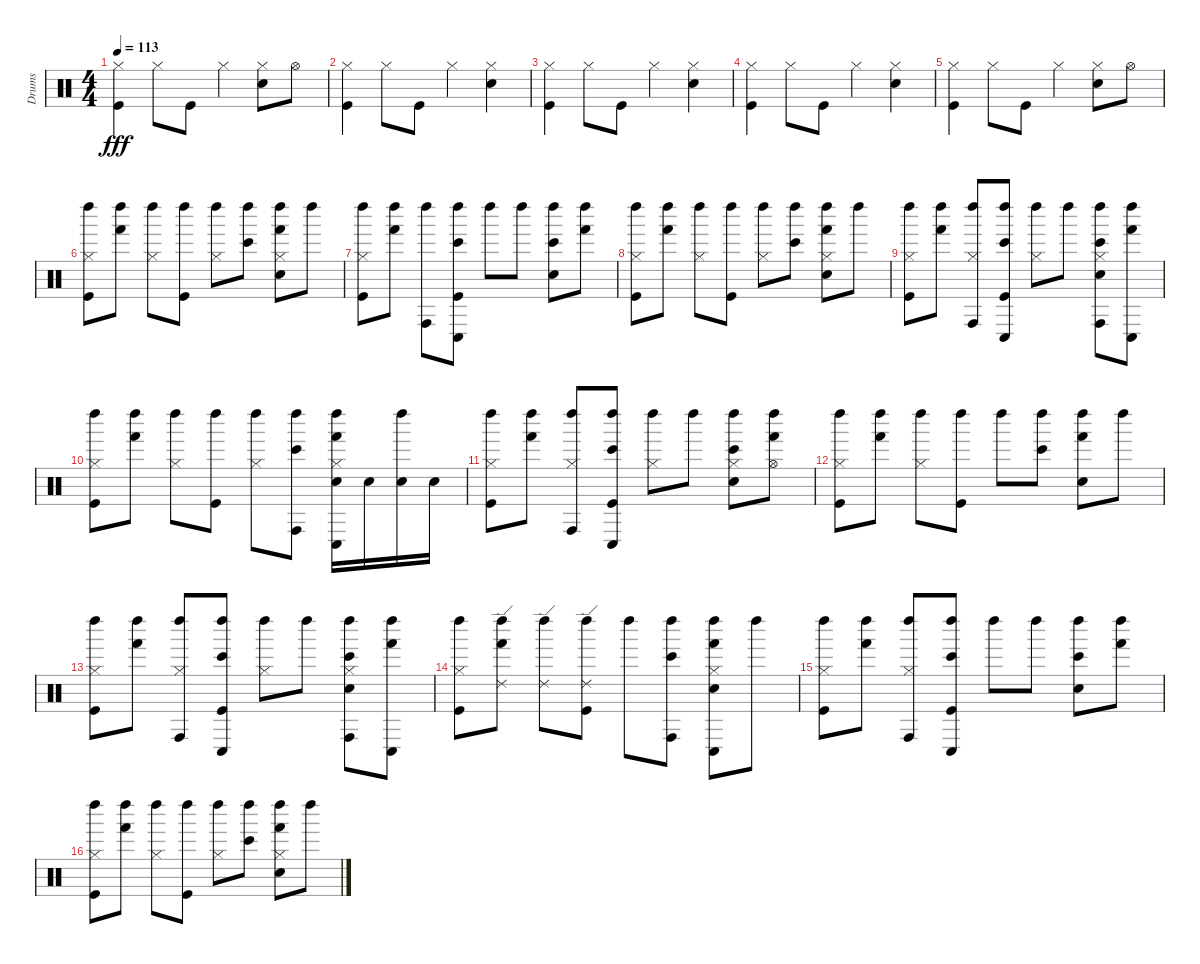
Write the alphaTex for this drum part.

\track ("Drums" "Drums") {instrument percussion}
\staff {score}
\articulation defaults
\ts (4 4)
\tempo 113
\clef neutral
\ks c
("Hi-Hat (closed)" "Kick (hit)").4{dy fff} "Hi-Hat (closed)".8 "Kick (hit)".8 "Hi-Hat (closed)".4 ("Hi-Hat (closed)" "Snare (hit) 2").8 "Hi-Hat (open)".8 |
("Hi-Hat (closed)" "Kick (hit)").4 "Hi-Hat (closed)".8 "Kick (hit)".8 "Hi-Hat (closed)".4 ("Hi-Hat (closed)" "Snare (hit) 2").4 |
("Hi-Hat (closed)" "Kick (hit)").4 "Hi-Hat (closed)".8 "Kick (hit)".8 "Hi-Hat (closed)".4 ("Hi-Hat (closed)" "Snare (hit) 2").4 |
("Hi-Hat (closed)" "Kick (hit)").4 "Hi-Hat (closed)".8 "Kick (hit)".8 "Hi-Hat (closed)".4 ("Hi-Hat (closed)" "Snare (hit) 2").4 |
("Hi-Hat (closed)" "Kick (hit)").4 "Hi-Hat (closed)".8 "Kick (hit)".8 "Hi-Hat (closed)".4 ("Hi-Hat (closed)" "Snare (hit) 2").8 "Hi-Hat (open)".8 |
("Hi-Hat (closed)" "Left Maraca (hit)" "Kick (hit)").8 ("Left Maraca (hit)" "Hand (hit)").8 ("Hi-Hat (closed)" "Left Maraca (hit)").8 ("Left Maraca (hit)" "Kick (hit)").8 ("Hi-Hat (closed)" "Left Maraca (hit)").8 ("Left Maraca (hit)" "Bongo High (hit)").8 ("Hi-Hat (closed)" "Left Maraca (hit)" "Hand (hit)" "Snare (hit) 2").8 "Left Maraca (hit)".8 |
("Hi-Hat (closed)" "Left Maraca (hit)" "Kick (hit)").8 ("Left Maraca (hit)" "Hand (hit)").8 ("Left Maraca (hit)" "Conga high (hit)").8 ("Left Maraca (hit)" "Conga low (hit)" "Bongo High (hit)" "Kick (hit)").8 "Left Maraca (hit)".8 "Left Maraca (hit)".8 ("Left Maraca (hit)" "Bongo High (hit)" "Snare (hit) 2").8 ("Left Maraca (hit)" "Hand (hit)").8 |
("Hi-Hat (closed)" "Left Maraca (hit)" "Kick (hit)").8 ("Left Maraca (hit)" "Hand (hit)").8 ("Hi-Hat (closed)" "Left Maraca (hit)").8 ("Left Maraca (hit)" "Kick (hit)").8 ("Hi-Hat (closed)" "Left Maraca (hit)").8 ("Left Maraca (hit)" "Bongo High (hit)").8 ("Hi-Hat (closed)" "Left Maraca (hit)" "Hand (hit)" "Snare (hit) 2").8 "Left Maraca (hit)".8 |
("Hi-Hat (closed)" "Left Maraca (hit)" "Kick (hit)").8 ("Left Maraca (hit)" "Hand (hit)").8 ("Hi-Hat (closed)" "Left Maraca (hit)" "Conga high (hit)").8 ("Left Maraca (hit)" "Conga low (hit)" "Bongo High (hit)" "Kick (hit)").8 ("Hi-Hat (closed)" "Left Maraca (hit)").8 "Left Maraca (hit)".8 ("Hi-Hat (closed)" "Left Maraca (hit)" "Conga high (hit)" "Bongo High (hit)" "Snare (hit) 2").8 ("Left Maraca (hit)" "Conga low (hit)" "Hand (hit)").8 |
("Hi-Hat (closed)" "Left Maraca (hit)" "Kick (hit)").8 ("Left Maraca (hit)" "Hand (hit)").8 ("Hi-Hat (closed)" "Left Maraca (hit)").8 ("Left Maraca (hit)" "Kick (hit)").8 ("Hi-Hat (closed)" "Left Maraca (hit)").8 ("Left Maraca (hit)" "Conga high (hit)" "Bongo High (hit)").8 ("Hi-Hat (closed)" "Left Maraca (hit)" "Conga low (hit)" "Hand (hit)" "Snare (hit) 2").16 "Snare (hit) 2".16 ("Left Maraca (hit)" "Snare (hit) 2").16 "Snare (hit) 2".16 |
("Hi-Hat (closed)" "Left Maraca (hit)" "Kick (hit)").8 ("Left Maraca (hit)" "Hand (hit)").8 ("Hi-Hat (closed)" "Left Maraca (hit)" "Conga high (hit)").8 ("Left Maraca (hit)" "Conga low (hit)" "Bongo High (hit)" "Kick (hit)").8 ("Hi-Hat (closed)" "Left Maraca (hit)").8 "Left Maraca (hit)".8 ("Hi-Hat (closed)" "Left Maraca (hit)" "Bongo High (hit)" "Snare (hit) 2").8 ("Hi-Hat (open)" "Left Maraca (hit)" "Hand (hit)").8 |
("Hi-Hat (closed)" "Left Maraca (hit)" "Kick (hit)").8 ("Left Maraca (hit)" "Hand (hit)").8 ("Hi-Hat (closed)" "Left Maraca (hit)").8 ("Left Maraca (hit)" "Kick (hit)").8 "Left Maraca (hit)".8 ("Left Maraca (hit)" "Bongo High (hit)").8 ("Left Maraca (hit)" "Hand (hit)" "Snare (hit) 2").8 "Left Maraca (hit)".8 |
("Hi-Hat (closed)" "Left Maraca (hit)" "Kick (hit)").8 ("Left Maraca (hit)" "Hand (hit)").8 ("Hi-Hat (closed)" "Left Maraca (hit)" "Conga high (hit)").8 ("Left Maraca (hit)" "Conga low (hit)" "Bongo High (hit)" "Kick (hit)").8 ("Hi-Hat (closed)" "Left Maraca (hit)").8 "Left Maraca (hit)".8 ("Hi-Hat (closed)" "Left Maraca (hit)" "Conga high (hit)" "Bongo High (hit)" "Snare (hit) 2").8 ("Left Maraca (hit)" "Conga low (hit)" "Hand (hit)").8 |
("Hi-Hat (closed)" "Left Maraca (hit)" "Kick (hit)").8 ("Ride (edge) 2" "Left Maraca (hit)" "Hand (hit)").8 ("Ride (edge) 2" "Left Maraca (hit)").8 ("Ride (edge) 2" "Left Maraca (hit)" "Kick (hit)").8 "Left Maraca (hit)".8 ("Left Maraca (hit)" "Conga high (hit)" "Bongo High (hit)").8 ("Hi-Hat (closed)" "Left Maraca (hit)" "Conga low (hit)" "Hand (hit)" "Snare (hit) 2").8 "Left Maraca (hit)".8 |
("Hi-Hat (closed)" "Left Maraca (hit)" "Kick (hit)").8 ("Left Maraca (hit)" "Hand (hit)").8 ("Hi-Hat (closed)" "Left Maraca (hit)" "Conga high (hit)").8 ("Left Maraca (hit)" "Conga low (hit)" "Bongo High (hit)" "Kick (hit)").8 "Left Maraca (hit)".8 "Left Maraca (hit)".8 ("Left Maraca (hit)" "Bongo High (hit)" "Snare (hit) 2").8 ("Left Maraca (hit)" "Hand (hit)").8 |
("Hi-Hat (closed)" "Left Maraca (hit)" "Kick (hit)").8 ("Left Maraca (hit)" "Hand (hit)").8 ("Hi-Hat (closed)" "Left Maraca (hit)").8 ("Left Maraca (hit)" "Kick (hit)").8 ("Hi-Hat (closed)" "Left Maraca (hit)").8 ("Left Maraca (hit)" "Bongo High (hit)").8 ("Hi-Hat (closed)" "Left Maraca (hit)" "Hand (hit)" "Snare (hit) 2").8 "Left Maraca (hit)".8
